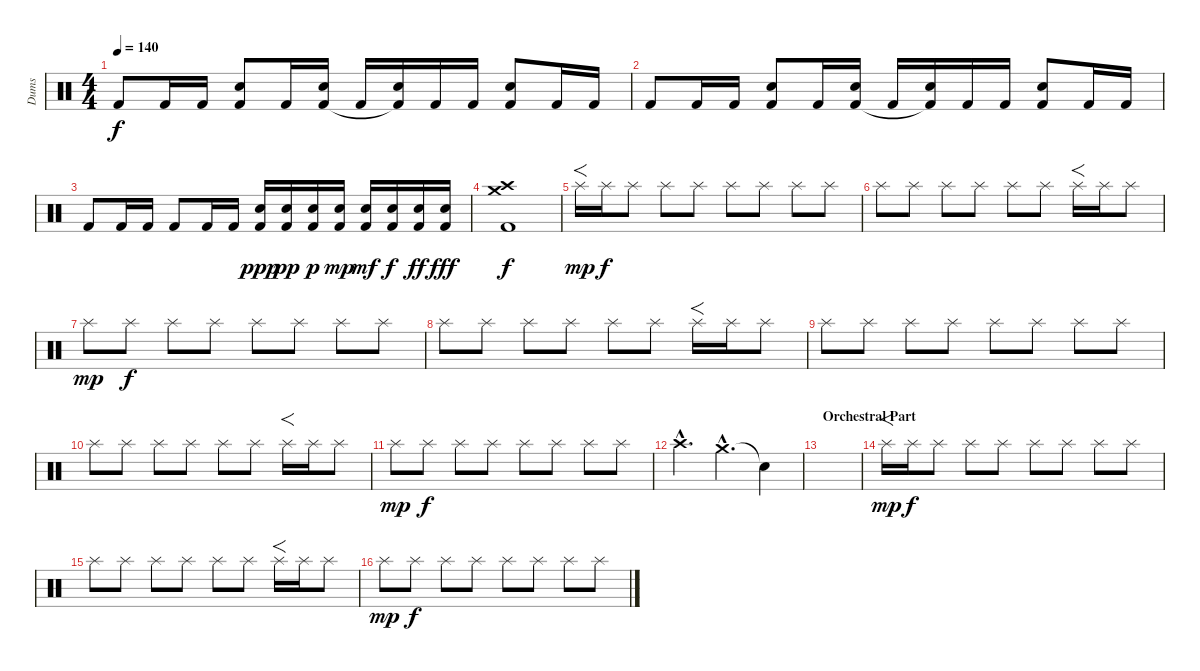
\track ("Dums" "Dums") {instrument percussion}
\staff {score}
\articulation defaults
\ts (4 4)
\tempo 140
\clef neutral
\ks c "Kick (hit) 2".8{dy f} "Kick (hit) 2".16 "Kick (hit) 2".16
("Snare (hit) 2" "Kick (hit) 2").8 "Kick (hit) 2".16 ("Snare (hit) 2" "Kick (hit) 2").16 "Kick (hit) 2".16 ("Snare (hit) 2" "Kick (hit) 2"{t}).16 "Kick (hit) 2".16 "Kick (hit) 2".16 ("Snare (hit) 2" "Kick (hit) 2").8 "Kick (hit) 2".16 "Kick (hit) 2".16 |
"Kick (hit) 2".8 "Kick (hit) 2".16 "Kick (hit) 2".16 ("Snare (hit) 2" "Kick (hit) 2").8 "Kick (hit) 2".16 ("Snare (hit) 2" "Kick (hit) 2").16 "Kick (hit) 2".16 ("Snare (hit) 2" "Kick (hit) 2"{t}).16 "Kick (hit) 2".16 "Kick (hit) 2".16 ("Snare (hit) 2" "Kick (hit) 2").8 "Kick (hit) 2".16 "Kick (hit) 2".16 |
"Kick (hit) 2".8 "Kick (hit) 2".16 "Kick (hit) 2".16 "Kick (hit) 2".8 "Kick (hit) 2".16 "Kick (hit) 2".16 ("Snare (hit) 2" "Kick (hit) 2").16{dy ppp} ("Snare (hit) 2" "Kick (hit) 2").16{dy pp} ("Snare (hit) 2" "Kick (hit) 2").16{dy p} ("Snare (hit) 2" "Kick (hit) 2").16{dy mp} ("Snare (hit) 2" "Kick (hit) 2").16{dy mf} ("Snare (hit) 2" "Kick (hit) 2").16{dy f} ("Snare (hit) 2" "Kick (hit) 2").16{dy ff} ("Snare (hit) 2" "Kick (hit) 2").16{dy fff} |
("Crash medium (hit)" "Crash high (hit)" "Kick (hit) 2").1{dy f} |
"Splash (hit)".16{f dy mp} "Splash (hit)".16{dy f} "Splash (hit)".8 "Splash (hit)".8 "Splash (hit)".8 "Splash (hit)".8 "Splash (hit)".8 "Splash (hit)".8 "Splash (hit)".8 |
"Splash (hit)".8 "Splash (hit)".8 "Splash (hit)".8 "Splash (hit)".8 "Splash (hit)".8 "Splash (hit)".8 "Splash (hit)".16{f} "Splash (hit)".16 "Splash (hit)".8 |
"Splash (hit)".8{dy mp} "Splash (hit)".8{dy f} "Splash (hit)".8 "Splash (hit)".8 "Splash (hit)".8 "Splash (hit)".8 "Splash (hit)".8 "Splash (hit)".8 |
"Splash (hit)".8 "Splash (hit)".8 "Splash (hit)".8 "Splash (hit)".8 "Splash (hit)".8 "Splash (hit)".8 "Splash (hit)".16{f} "Splash (hit)".16 "Splash (hit)".8 |
"Splash (hit)".8 "Splash (hit)".8 "Splash (hit)".8 "Splash (hit)".8 "Splash (hit)".8 "Splash (hit)".8 "Splash (hit)".8 "Splash (hit)".8 |
"Splash (hit)".8 "Splash (hit)".8 "Splash (hit)".8 "Splash (hit)".8 "Splash (hit)".8 "Splash (hit)".8 "Splash (hit)".16{f} "Splash (hit)".16 "Splash (hit)".8 |
"Splash (hit)".8{dy mp} "Splash (hit)".8{dy f} "Splash (hit)".8 "Splash (hit)".8 "Splash (hit)".8 "Splash (hit)".8 "Splash (hit)".8 "Splash (hit)".8 |
"Crash high (hit)"{hac}.4{d} "Crash medium (hit)"{hac}.4{d} "Snare (hit)"{t}.4 |
\section ("" "Orchestral Part")
|
"Splash (hit)".16{f dy mp} "Splash (hit)".16{dy f} "Splash (hit)".8 "Splash (hit)".8 "Splash (hit)".8 "Splash (hit)".8 "Splash (hit)".8 "Splash (hit)".8 "Splash (hit)".8 |
"Splash (hit)".8 "Splash (hit)".8 "Splash (hit)".8 "Splash (hit)".8 "Splash (hit)".8 "Splash (hit)".8 "Splash (hit)".16{f} "Splash (hit)".16 "Splash (hit)".8 |
"Splash (hit)".8{dy mp} "Splash (hit)".8{dy f} "Splash (hit)".8 "Splash (hit)".8 "Splash (hit)".8 "Splash (hit)".8 "Splash (hit)".8 "Splash (hit)".8
